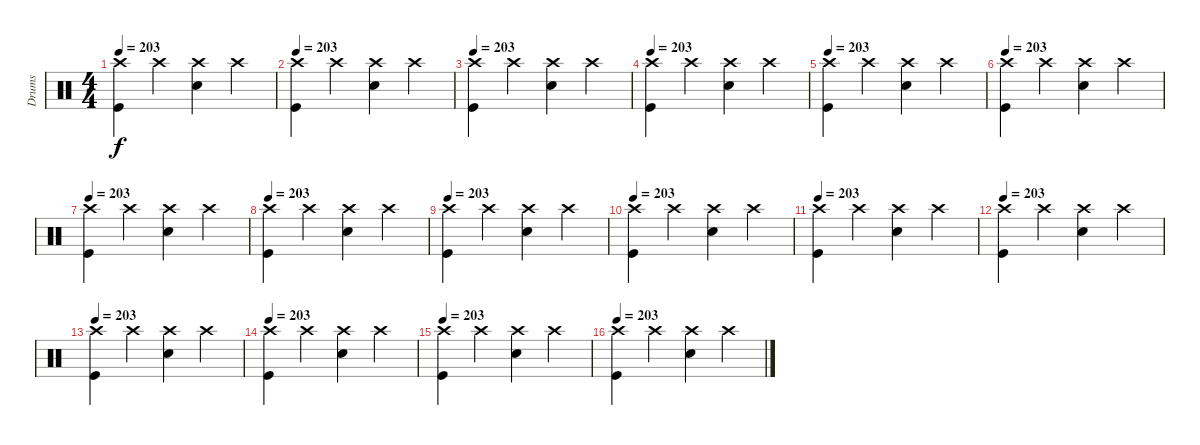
\track ("Drums" "Drums") {instrument percussion}
\staff {score}
\articulation defaults
\ts (4 4)
\tempo 203
\clef neutral
\ks c
("Crash high (hit)" "Kick (hit)").4{dy f} "Crash high (hit)".4 ("Electric Snare (hit)" "Crash high (hit)").4 "Crash high (hit)".4 |
\tempo 203
("Crash high (hit)" "Kick (hit)").4 "Crash high (hit)".4 ("Electric Snare (hit)" "Crash high (hit)").4 "Crash high (hit)".4 |
\tempo 203
("Crash high (hit)" "Kick (hit)").4 "Crash high (hit)".4 ("Electric Snare (hit)" "Crash high (hit)").4 "Crash high (hit)".4 |
\tempo 203
("Crash high (hit)" "Kick (hit)").4 "Crash high (hit)".4 ("Electric Snare (hit)" "Crash high (hit)").4 "Crash high (hit)".4 |
\tempo 203
("Crash high (hit)" "Kick (hit)").4 "Crash high (hit)".4 ("Electric Snare (hit)" "Crash high (hit)").4 "Crash high (hit)".4 |
\tempo 203
("Crash high (hit)" "Kick (hit)").4 "Crash high (hit)".4 ("Electric Snare (hit)" "Crash high (hit)").4 "Crash high (hit)".4 |
\tempo 203
("Crash high (hit)" "Kick (hit)").4 "Crash high (hit)".4 ("Electric Snare (hit)" "Crash high (hit)").4 "Crash high (hit)".4 |
\tempo 203
("Crash high (hit)" "Kick (hit)").4 "Crash high (hit)".4 ("Electric Snare (hit)" "Crash high (hit)").4 "Crash high (hit)".4 |
\tempo 203
("Crash high (hit)" "Kick (hit)").4 "Crash high (hit)".4 ("Electric Snare (hit)" "Crash high (hit)").4 "Crash high (hit)".4 |
\tempo 203
("Crash high (hit)" "Kick (hit)").4 "Crash high (hit)".4 ("Electric Snare (hit)" "Crash high (hit)").4 "Crash high (hit)".4 |
\tempo 203
("Crash high (hit)" "Kick (hit)").4 "Crash high (hit)".4 ("Electric Snare (hit)" "Crash high (hit)").4 "Crash high (hit)".4 |
\tempo 203
("Crash high (hit)" "Kick (hit)").4 "Crash high (hit)".4 ("Electric Snare (hit)" "Crash high (hit)").4 "Crash high (hit)".4 |
\tempo 203
("Crash high (hit)" "Kick (hit)").4 "Crash high (hit)".4 ("Electric Snare (hit)" "Crash high (hit)").4 "Crash high (hit)".4 |
\tempo 203
("Crash high (hit)" "Kick (hit)").4 "Crash high (hit)".4 ("Electric Snare (hit)" "Crash high (hit)").4 "Crash high (hit)".4 |
\tempo 203
("Crash high (hit)" "Kick (hit)").4 "Crash high (hit)".4 ("Electric Snare (hit)" "Crash high (hit)").4 "Crash high (hit)".4 |
\tempo 203
("Crash high (hit)" "Kick (hit)").4 "Crash high (hit)".4 ("Electric Snare (hit)" "Crash high (hit)").4 "Crash high (hit)".4
